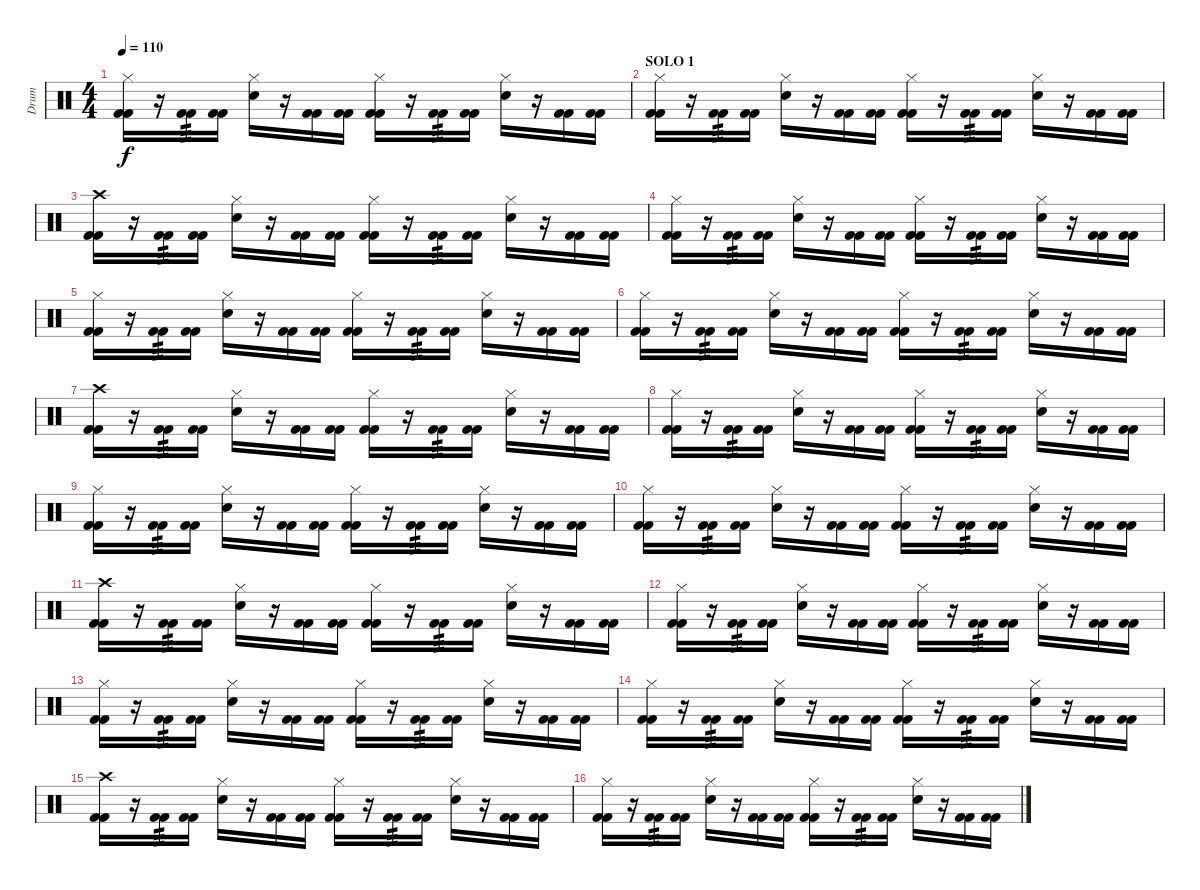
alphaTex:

\track ("Drum" "Drum") {instrument percussion}
\staff {score}
\articulation defaults
\ts (4 4)
\tempo 110
\clef neutral
\ks c
("Kick (hit) 2" "Kick (hit) 2" "Hi-Hat (closed)").16{dy f} r.16 ("Kick (hit) 2" "Kick (hit) 2").16{tp 3} ("Kick (hit) 2" "Kick (hit) 2").16 ("Electric Snare (hit)" "Hi-Hat (closed)").16 r.16 ("Kick (hit) 2" "Kick (hit) 2").16 ("Kick (hit) 2" "Kick (hit) 2").16 ("Kick (hit) 2" "Kick (hit) 2" "Hi-Hat (closed)").16 r.16 ("Kick (hit) 2" "Kick (hit) 2").16{tp 3} ("Kick (hit) 2" "Kick (hit) 2").16 ("Electric Snare (hit)" "Hi-Hat (closed)").16 r.16 ("Kick (hit) 2" "Kick (hit) 2").16 ("Kick (hit) 2" "Kick (hit) 2").16 |
\section ("" "SOLO 1")
("Kick (hit) 2" "Kick (hit) 2" "Hi-Hat (closed)").16 r.16 ("Kick (hit) 2" "Kick (hit) 2").16{tp 3} ("Kick (hit) 2" "Kick (hit) 2").16 ("Electric Snare (hit)" "Hi-Hat (closed)").16 r.16 ("Kick (hit) 2" "Kick (hit) 2").16 ("Kick (hit) 2" "Kick (hit) 2").16 ("Kick (hit) 2" "Kick (hit) 2" "Hi-Hat (closed)").16 r.16 ("Kick (hit) 2" "Kick (hit) 2").16{tp 3} ("Kick (hit) 2" "Kick (hit) 2").16 ("Electric Snare (hit)" "Hi-Hat (closed)").16 r.16 ("Kick (hit) 2" "Kick (hit) 2").16 ("Kick (hit) 2" "Kick (hit) 2").16 |
("Kick (hit) 2" "Kick (hit) 2" "Crash high (hit)").16 r.16 ("Kick (hit) 2" "Kick (hit) 2").16{tp 3} ("Kick (hit) 2" "Kick (hit) 2").16 ("Electric Snare (hit)" "Hi-Hat (closed)").16 r.16 ("Kick (hit) 2" "Kick (hit) 2").16 ("Kick (hit) 2" "Kick (hit) 2").16 ("Kick (hit) 2" "Kick (hit) 2" "Hi-Hat (closed)").16 r.16 ("Kick (hit) 2" "Kick (hit) 2").16{tp 3} ("Kick (hit) 2" "Kick (hit) 2").16 ("Electric Snare (hit)" "Hi-Hat (closed)").16 r.16 ("Kick (hit) 2" "Kick (hit) 2").16 ("Kick (hit) 2" "Kick (hit) 2").16 |
("Kick (hit) 2" "Kick (hit) 2" "Hi-Hat (closed)").16 r.16 ("Kick (hit) 2" "Kick (hit) 2").16{tp 3} ("Kick (hit) 2" "Kick (hit) 2").16 ("Electric Snare (hit)" "Hi-Hat (closed)").16 r.16 ("Kick (hit) 2" "Kick (hit) 2").16 ("Kick (hit) 2" "Kick (hit) 2").16 ("Kick (hit) 2" "Kick (hit) 2" "Hi-Hat (closed)").16 r.16 ("Kick (hit) 2" "Kick (hit) 2").16{tp 3} ("Kick (hit) 2" "Kick (hit) 2").16 ("Electric Snare (hit)" "Hi-Hat (closed)").16 r.16 ("Kick (hit) 2" "Kick (hit) 2").16 ("Kick (hit) 2" "Kick (hit) 2").16 |
("Kick (hit) 2" "Kick (hit) 2" "Hi-Hat (closed)").16 r.16 ("Kick (hit) 2" "Kick (hit) 2").16{tp 3} ("Kick (hit) 2" "Kick (hit) 2").16 ("Electric Snare (hit)" "Hi-Hat (closed)").16 r.16 ("Kick (hit) 2" "Kick (hit) 2").16 ("Kick (hit) 2" "Kick (hit) 2").16 ("Kick (hit) 2" "Kick (hit) 2" "Hi-Hat (closed)").16 r.16 ("Kick (hit) 2" "Kick (hit) 2").16{tp 3} ("Kick (hit) 2" "Kick (hit) 2").16 ("Electric Snare (hit)" "Hi-Hat (closed)").16 r.16 ("Kick (hit) 2" "Kick (hit) 2").16 ("Kick (hit) 2" "Kick (hit) 2").16 |
("Kick (hit) 2" "Kick (hit) 2" "Hi-Hat (closed)").16 r.16 ("Kick (hit) 2" "Kick (hit) 2").16{tp 3} ("Kick (hit) 2" "Kick (hit) 2").16 ("Electric Snare (hit)" "Hi-Hat (closed)").16 r.16 ("Kick (hit) 2" "Kick (hit) 2").16 ("Kick (hit) 2" "Kick (hit) 2").16 ("Kick (hit) 2" "Kick (hit) 2" "Hi-Hat (closed)").16 r.16 ("Kick (hit) 2" "Kick (hit) 2").16{tp 3} ("Kick (hit) 2" "Kick (hit) 2").16 ("Electric Snare (hit)" "Hi-Hat (closed)").16 r.16 ("Kick (hit) 2" "Kick (hit) 2").16 ("Kick (hit) 2" "Kick (hit) 2").16 |
("Kick (hit) 2" "Kick (hit) 2" "Crash high (hit)").16 r.16 ("Kick (hit) 2" "Kick (hit) 2").16{tp 3} ("Kick (hit) 2" "Kick (hit) 2").16 ("Electric Snare (hit)" "Hi-Hat (closed)").16 r.16 ("Kick (hit) 2" "Kick (hit) 2").16 ("Kick (hit) 2" "Kick (hit) 2").16 ("Kick (hit) 2" "Kick (hit) 2" "Hi-Hat (closed)").16 r.16 ("Kick (hit) 2" "Kick (hit) 2").16{tp 3} ("Kick (hit) 2" "Kick (hit) 2").16 ("Electric Snare (hit)" "Hi-Hat (closed)").16 r.16 ("Kick (hit) 2" "Kick (hit) 2").16 ("Kick (hit) 2" "Kick (hit) 2").16 |
("Kick (hit) 2" "Kick (hit) 2" "Hi-Hat (closed)").16 r.16 ("Kick (hit) 2" "Kick (hit) 2").16{tp 3} ("Kick (hit) 2" "Kick (hit) 2").16 ("Electric Snare (hit)" "Hi-Hat (closed)").16 r.16 ("Kick (hit) 2" "Kick (hit) 2").16 ("Kick (hit) 2" "Kick (hit) 2").16 ("Kick (hit) 2" "Kick (hit) 2" "Hi-Hat (closed)").16 r.16 ("Kick (hit) 2" "Kick (hit) 2").16{tp 3} ("Kick (hit) 2" "Kick (hit) 2").16 ("Electric Snare (hit)" "Hi-Hat (closed)").16 r.16 ("Kick (hit) 2" "Kick (hit) 2").16 ("Kick (hit) 2" "Kick (hit) 2").16 |
("Kick (hit) 2" "Kick (hit) 2" "Hi-Hat (closed)").16 r.16 ("Kick (hit) 2" "Kick (hit) 2").16{tp 3} ("Kick (hit) 2" "Kick (hit) 2").16 ("Electric Snare (hit)" "Hi-Hat (closed)").16 r.16 ("Kick (hit) 2" "Kick (hit) 2").16 ("Kick (hit) 2" "Kick (hit) 2").16 ("Kick (hit) 2" "Kick (hit) 2" "Hi-Hat (closed)").16 r.16 ("Kick (hit) 2" "Kick (hit) 2").16{tp 3} ("Kick (hit) 2" "Kick (hit) 2").16 ("Electric Snare (hit)" "Hi-Hat (closed)").16 r.16 ("Kick (hit) 2" "Kick (hit) 2").16 ("Kick (hit) 2" "Kick (hit) 2").16 |
("Kick (hit) 2" "Kick (hit) 2" "Hi-Hat (closed)").16 r.16 ("Kick (hit) 2" "Kick (hit) 2").16{tp 3} ("Kick (hit) 2" "Kick (hit) 2").16 ("Electric Snare (hit)" "Hi-Hat (closed)").16 r.16 ("Kick (hit) 2" "Kick (hit) 2").16 ("Kick (hit) 2" "Kick (hit) 2").16 ("Kick (hit) 2" "Kick (hit) 2" "Hi-Hat (closed)").16 r.16 ("Kick (hit) 2" "Kick (hit) 2").16{tp 3} ("Kick (hit) 2" "Kick (hit) 2").16 ("Electric Snare (hit)" "Hi-Hat (closed)").16 r.16 ("Kick (hit) 2" "Kick (hit) 2").16 ("Kick (hit) 2" "Kick (hit) 2").16 |
("Kick (hit) 2" "Kick (hit) 2" "Crash high (hit)").16 r.16 ("Kick (hit) 2" "Kick (hit) 2").16{tp 3} ("Kick (hit) 2" "Kick (hit) 2").16 ("Electric Snare (hit)" "Hi-Hat (closed)").16 r.16 ("Kick (hit) 2" "Kick (hit) 2").16 ("Kick (hit) 2" "Kick (hit) 2").16 ("Kick (hit) 2" "Kick (hit) 2" "Hi-Hat (closed)").16 r.16 ("Kick (hit) 2" "Kick (hit) 2").16{tp 3} ("Kick (hit) 2" "Kick (hit) 2").16 ("Electric Snare (hit)" "Hi-Hat (closed)").16 r.16 ("Kick (hit) 2" "Kick (hit) 2").16 ("Kick (hit) 2" "Kick (hit) 2").16 |
("Kick (hit) 2" "Kick (hit) 2" "Hi-Hat (closed)").16 r.16 ("Kick (hit) 2" "Kick (hit) 2").16{tp 3} ("Kick (hit) 2" "Kick (hit) 2").16 ("Electric Snare (hit)" "Hi-Hat (closed)").16 r.16 ("Kick (hit) 2" "Kick (hit) 2").16 ("Kick (hit) 2" "Kick (hit) 2").16 ("Kick (hit) 2" "Kick (hit) 2" "Hi-Hat (closed)").16 r.16 ("Kick (hit) 2" "Kick (hit) 2").16{tp 3} ("Kick (hit) 2" "Kick (hit) 2").16 ("Electric Snare (hit)" "Hi-Hat (closed)").16 r.16 ("Kick (hit) 2" "Kick (hit) 2").16 ("Kick (hit) 2" "Kick (hit) 2").16 |
("Kick (hit) 2" "Kick (hit) 2" "Hi-Hat (closed)").16 r.16 ("Kick (hit) 2" "Kick (hit) 2").16{tp 3} ("Kick (hit) 2" "Kick (hit) 2").16 ("Electric Snare (hit)" "Hi-Hat (closed)").16 r.16 ("Kick (hit) 2" "Kick (hit) 2").16 ("Kick (hit) 2" "Kick (hit) 2").16 ("Kick (hit) 2" "Kick (hit) 2" "Hi-Hat (closed)").16 r.16 ("Kick (hit) 2" "Kick (hit) 2").16{tp 3} ("Kick (hit) 2" "Kick (hit) 2").16 ("Electric Snare (hit)" "Hi-Hat (closed)").16 r.16 ("Kick (hit) 2" "Kick (hit) 2").16 ("Kick (hit) 2" "Kick (hit) 2").16 |
("Kick (hit) 2" "Kick (hit) 2" "Hi-Hat (closed)").16 r.16 ("Kick (hit) 2" "Kick (hit) 2").16{tp 3} ("Kick (hit) 2" "Kick (hit) 2").16 ("Electric Snare (hit)" "Hi-Hat (closed)").16 r.16 ("Kick (hit) 2" "Kick (hit) 2").16 ("Kick (hit) 2" "Kick (hit) 2").16 ("Kick (hit) 2" "Kick (hit) 2" "Hi-Hat (closed)").16 r.16 ("Kick (hit) 2" "Kick (hit) 2").16{tp 3} ("Kick (hit) 2" "Kick (hit) 2").16 ("Electric Snare (hit)" "Hi-Hat (closed)").16 r.16 ("Kick (hit) 2" "Kick (hit) 2").16 ("Kick (hit) 2" "Kick (hit) 2").16 |
("Kick (hit) 2" "Kick (hit) 2" "Crash high (hit)").16 r.16 ("Kick (hit) 2" "Kick (hit) 2").16{tp 3} ("Kick (hit) 2" "Kick (hit) 2").16 ("Electric Snare (hit)" "Hi-Hat (closed)").16 r.16 ("Kick (hit) 2" "Kick (hit) 2").16 ("Kick (hit) 2" "Kick (hit) 2").16 ("Kick (hit) 2" "Kick (hit) 2" "Hi-Hat (closed)").16 r.16 ("Kick (hit) 2" "Kick (hit) 2").16{tp 3} ("Kick (hit) 2" "Kick (hit) 2").16 ("Electric Snare (hit)" "Hi-Hat (closed)").16 r.16 ("Kick (hit) 2" "Kick (hit) 2").16 ("Kick (hit) 2" "Kick (hit) 2").16 |
("Kick (hit) 2" "Kick (hit) 2" "Hi-Hat (closed)").16 r.16 ("Kick (hit) 2" "Kick (hit) 2").16{tp 3} ("Kick (hit) 2" "Kick (hit) 2").16 ("Electric Snare (hit)" "Hi-Hat (closed)").16 r.16 ("Kick (hit) 2" "Kick (hit) 2").16 ("Kick (hit) 2" "Kick (hit) 2").16 ("Kick (hit) 2" "Kick (hit) 2" "Hi-Hat (closed)").16 r.16 ("Kick (hit) 2" "Kick (hit) 2").16{tp 3} ("Kick (hit) 2" "Kick (hit) 2").16 ("Electric Snare (hit)" "Hi-Hat (closed)").16 r.16 ("Kick (hit) 2" "Kick (hit) 2").16 ("Kick (hit) 2" "Kick (hit) 2").16
